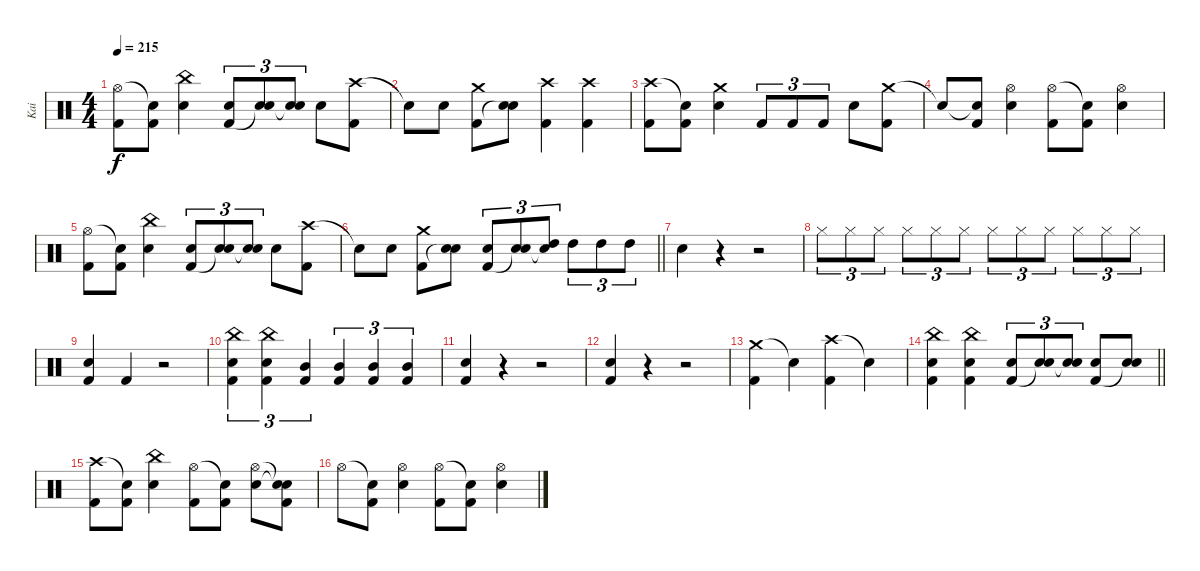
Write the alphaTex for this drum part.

\track ("Kai" "Kai") {instrument percussion}
\staff {score}
\articulation defaults
\ts (4 4)
\tempo 215
\clef neutral
\ks c
("Hi-Hat (open)" "Kick (hit) 2").8{dy f} ("Snare (hit)"{t} "Kick (hit) 2").8 ("China (hit)" "Snare (hit) 2").4 ("Snare (hit) 2" "Kick (hit) 2").8{tu (3 2)} ("Snare (hit) 2" "Snare (hit)"{t}).8{tu (3 2)} ("Snare (hit) 2" "Snare (hit)"{t}).8{tu (3 2)} "Snare (hit) 2".8 ("Crash high (hit)" "Kick (hit) 2").8 |
"Snare (hit)"{t}.8 "Snare (hit) 2".8 ("Crash medium (hit)" "Kick (hit) 2").8 ("Snare (hit) 2" "Snare (hit)"{t}).8 ("Crash high (hit)" "Kick (hit) 2").4 ("Crash high (hit)" "Kick (hit) 2").4 |
("Crash high (hit)" "Kick (hit) 2").8 ("Snare (hit)"{t} "Kick (hit) 2").8 ("Crash medium (hit)" "Snare (hit) 2").4 "Kick (hit) 2".8{tu (3 2)} "Kick (hit) 2".8{tu (3 2)} "Kick (hit) 2".8{tu (3 2)} "Snare (hit) 2".8 ("Crash medium (hit)" "Kick (hit) 2").8 |
"Snare (hit)"{t}.8 ("Snare (hit)"{t} "Kick (hit) 2").8 ("Hi-Hat (open)" "Snare (hit) 2").4 ("Hi-Hat (open)" "Kick (hit) 2").8 ("Snare (hit)"{t} "Kick (hit) 2").8 ("Hi-Hat (open)" "Snare (hit) 2").4 |
("Hi-Hat (open)" "Kick (hit) 2").8 ("Snare (hit)"{t} "Kick (hit) 2").8 ("China (hit)" "Snare (hit) 2").4 ("Snare (hit) 2" "Kick (hit) 2").8{tu (3 2)} ("Snare (hit) 2" "Snare (hit)"{t}).8{tu (3 2)} ("Snare (hit) 2" "Snare (hit)"{t}).8{tu (3 2)} "Snare (hit) 2".8 ("Crash high (hit)" "Kick (hit) 2").8 |
\barLineRight lightlight "Snare (hit)"{t}.8 "Snare (hit) 2".8
("Crash medium (hit)" "Kick (hit) 2").8 ("Snare (hit) 2" "Snare (hit)"{t}).8 ("Snare (hit) 2" "Kick (hit) 2").8{tu (3 2)} ("Snare (hit) 2" "Snare (hit)"{t}).8{tu (3 2)} ("High Tom (hit)" "Snare (hit)"{t}).8{tu (3 2)} "High Tom (hit)".8{tu (3 2)} "High Tom (hit)".8{tu (3 2)} "High Tom (hit)".8{tu (3 2)} |
"Snare (hit) 2".4 r.4 r.2 |
"Hi-Hat (closed)".8{tu (3 2)} "Hi-Hat (closed)".8{tu (3 2)} "Hi-Hat (closed)".8{tu (3 2)} "Hi-Hat (closed)".8{tu (3 2)} "Hi-Hat (closed)".8{tu (3 2)} "Hi-Hat (closed)".8{tu (3 2)} "Hi-Hat (closed)".8{tu (3 2)} "Hi-Hat (closed)".8{tu (3 2)} "Hi-Hat (closed)".8{tu (3 2)} "Hi-Hat (closed)".8{tu (3 2)} "Hi-Hat (closed)".8{tu (3 2)} "Hi-Hat (closed)".8{tu (3 2)} |
("Snare (hit) 2" "Kick (hit) 2").4 "Kick (hit) 2".4 r.2 |
("China (hit)" "Snare (hit) 2" "Kick (hit) 2").4{tu (3 2)} ("China (hit)" "Snare (hit) 2" "Kick (hit) 2").4{tu (3 2)} ("Mid Tom (hit)" "Kick (hit) 2").4{tu (3 2)} ("Mid Tom (hit)" "Kick (hit) 2").4{tu (3 2)} ("Mid Tom (hit)" "Kick (hit) 2").4{tu (3 2)} ("Mid Tom (hit)" "Kick (hit) 2").4{tu (3 2)} |
("Snare (hit) 2" "Kick (hit) 2").4 r.4 r.2 |
("Snare (hit) 2" "Kick (hit) 2").4 r.4 r.2 |
("Crash medium (hit)" "Kick (hit) 2").4 "Snare (hit)"{t}.4 ("Crash high (hit)" "Kick (hit) 2").4 "Snare (hit)"{t}.4 |
\barLineRight lightlight
("China (hit)" "Snare (hit) 2" "Kick (hit) 2").4 ("China (hit)" "Snare (hit) 2" "Kick (hit) 2").4 ("Snare (hit) 2" "Kick (hit) 2").8{tu (3 2)} ("Snare (hit) 2" "Snare (hit)"{t}).8{tu (3 2)} ("Snare (hit) 2" "Snare (hit)"{t}).8{tu (3 2)} ("Snare (hit) 2" "Kick (hit) 2").8 ("Snare (hit) 2" "Snare (hit)"{t}).8 |
("Crash high (hit)" "Kick (hit) 2").8 ("Snare (hit)"{t} "Kick (hit) 2").8 ("China (hit)" "Snare (hit) 2").4 ("Hi-Hat (open)" "Kick (hit) 2").8 ("Snare (hit)"{t} "Kick (hit) 2").8 ("Hi-Hat (open)" "Snare (hit) 2").8 ("Snare (hit)"{t} "Snare (hit)"{t} "Kick (hit) 2").8 |
"Hi-Hat (open)".8 ("Snare (hit)"{t} "Kick (hit) 2").8 ("Hi-Hat (open)" "Snare (hit) 2").4 ("Hi-Hat (open)" "Kick (hit) 2").8 ("Snare (hit)"{t} "Kick (hit) 2").8 ("Hi-Hat (open)" "Snare (hit) 2").4
